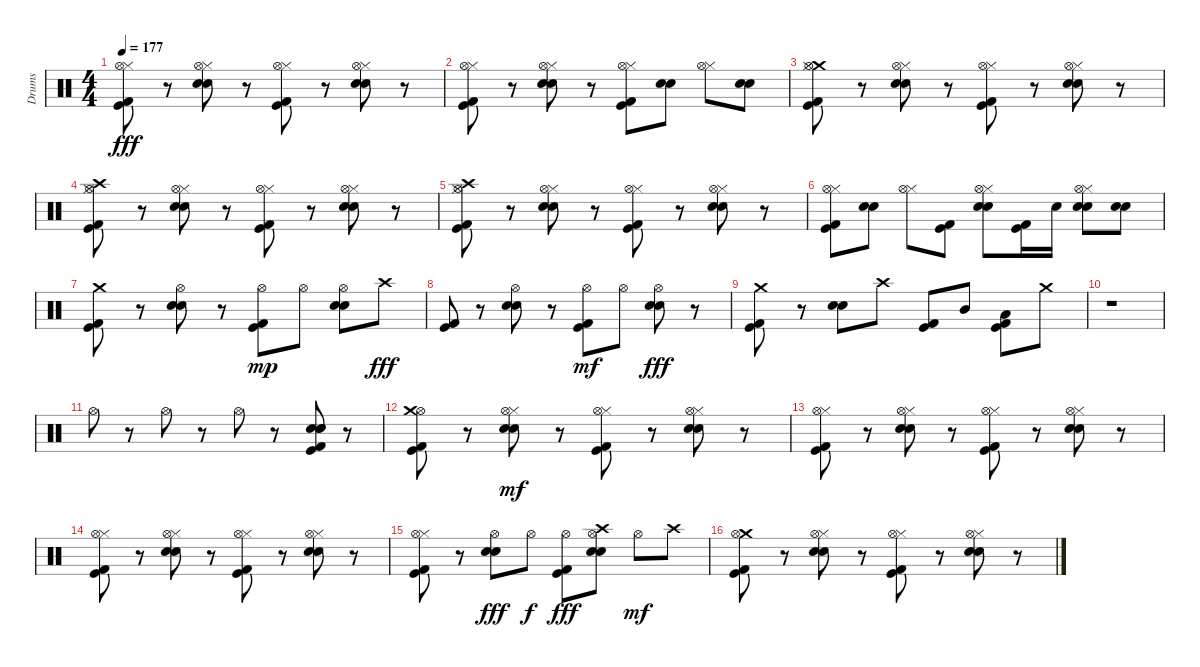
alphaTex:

\track ("Drums" "Drums") {instrument percussion}
\staff {score}
\articulation defaults
\ts (4 4)
\tempo 177
\clef neutral
\ks c
("Kick (hit) 2" "Kick (hit)" "Hi-Hat (closed)" "Hi-Hat (open)").8{dy fff} r.8 ("Electric Snare (hit)" "Snare (hit) 2" "Hi-Hat (closed)" "Hi-Hat (open)").8 r.8 ("Kick (hit) 2" "Kick (hit)" "Hi-Hat (closed)" "Hi-Hat (open)").8 r.8 ("Electric Snare (hit)" "Snare (hit) 2" "Hi-Hat (closed)" "Hi-Hat (open)").8 r.8 |
("Kick (hit) 2" "Kick (hit)" "Hi-Hat (closed)" "Hi-Hat (open)").8 r.8 ("Electric Snare (hit)" "Snare (hit) 2" "Hi-Hat (closed)" "Hi-Hat (open)").8 r.8 ("Kick (hit) 2" "Kick (hit)" "Hi-Hat (closed)" "Hi-Hat (open)").8 ("Electric Snare (hit)" "Snare (hit) 2").8 ("Hi-Hat (closed)" "Hi-Hat (open)").8 ("Electric Snare (hit)" "Snare (hit) 2").8 |
("Crash medium (hit)" "Kick (hit) 2" "Kick (hit)" "Hi-Hat (closed)" "Hi-Hat (open)").8 r.8 ("Electric Snare (hit)" "Snare (hit) 2" "Hi-Hat (closed)" "Hi-Hat (open)").8 r.8 ("Kick (hit) 2" "Kick (hit)" "Hi-Hat (closed)" "Hi-Hat (open)").8 r.8 ("Electric Snare (hit)" "Snare (hit) 2" "Hi-Hat (closed)" "Hi-Hat (open)").8 r.8 |
("Crash high (hit)" "Kick (hit) 2" "Kick (hit)" "Hi-Hat (closed)" "Hi-Hat (open)").8 r.8 ("Electric Snare (hit)" "Snare (hit) 2" "Hi-Hat (closed)" "Hi-Hat (open)").8 r.8 ("Kick (hit) 2" "Kick (hit)" "Hi-Hat (closed)" "Hi-Hat (open)").8 r.8 ("Electric Snare (hit)" "Snare (hit) 2" "Hi-Hat (closed)" "Hi-Hat (open)").8 r.8 |
("Crash high (hit)" "Kick (hit) 2" "Kick (hit)" "Hi-Hat (closed)" "Hi-Hat (open)").8 r.8 ("Electric Snare (hit)" "Snare (hit) 2" "Hi-Hat (closed)" "Hi-Hat (open)").8 r.8 ("Kick (hit) 2" "Kick (hit)" "Hi-Hat (closed)" "Hi-Hat (open)").8 r.8 ("Electric Snare (hit)" "Snare (hit) 2" "Hi-Hat (closed)" "Hi-Hat (open)").8 r.8 |
("Kick (hit) 2" "Kick (hit)" "Hi-Hat (closed)" "Hi-Hat (open)").8 ("Electric Snare (hit)" "Snare (hit) 2").8 ("Hi-Hat (closed)" "Hi-Hat (open)").8 ("Kick (hit) 2" "Kick (hit)").8 ("Electric Snare (hit)" "Snare (hit) 2" "Hi-Hat (closed)" "Hi-Hat (open)").8 ("Kick (hit) 2" "Kick (hit)").16 "Electric Snare (hit)".16 ("Electric Snare (hit)" "Snare (hit) 2" "Hi-Hat (closed)" "Hi-Hat (open)").8 ("Electric Snare (hit)" "Snare (hit) 2").8 |
("Kick (hit) 2" "Kick (hit)" "Crash medium (hit)").8 r.8 ("Hi-Hat (open)" "Electric Snare (hit)" "Snare (hit) 2").8 r.8 ("Kick (hit) 2" "Kick (hit)" "Hi-Hat (open)").8{dy mp} "Hi-Hat (open)".8 ("Electric Snare (hit)" "Snare (hit) 2" "Hi-Hat (open)").8 "Crash high (hit)".8{dy fff} |
("Kick (hit) 2" "Kick (hit)").8 r.8 ("Electric Snare (hit)" "Snare (hit) 2" "Hi-Hat (open)").8 r.8 ("Kick (hit) 2" "Kick (hit)" "Hi-Hat (open)").8{dy mf} "Hi-Hat (open)".8 ("Electric Snare (hit)" "Snare (hit) 2" "Hi-Hat (open)").8{dy fff} r.8 |
("Kick (hit) 2" "Kick (hit)" "Crash medium (hit)").8 r.8 ("Electric Snare (hit)" "Snare (hit) 2").8 "Crash high (hit)".8 ("Kick (hit) 2" "Kick (hit)").8 "Mid Tom (hit)".8 ("Low Tom (hit)" "Kick (hit) 2" "Kick (hit)").8 "Crash medium (hit)".8 |
r.1 |
"Hi-Hat (open)".8 r.8 "Hi-Hat (open)".8 r.8 "Hi-Hat (open)".8 r.8 ("Snare (hit) 2" "Electric Snare (hit)" "Snare (hit) 2" "Kick (hit) 2" "Kick (hit)").8 r.8 |
("Hi-Hat (open)" "Kick (hit) 2" "Kick (hit)" "Crash medium (hit)").8 r.8 ("Electric Snare (hit)" "Snare (hit) 2" "Hi-Hat (closed)" "Hi-Hat (open)").8{dy mf} r.8 ("Kick (hit) 2" "Kick (hit)" "Hi-Hat (closed)" "Hi-Hat (open)").8 r.8 ("Electric Snare (hit)" "Snare (hit) 2" "Hi-Hat (closed)" "Hi-Hat (open)").8 r.8 |
("Hi-Hat (closed)" "Kick (hit) 2" "Kick (hit)" "Hi-Hat (open)").8 r.8 ("Hi-Hat (closed)" "Electric Snare (hit)" "Snare (hit) 2" "Hi-Hat (open)").8 r.8 ("Hi-Hat (closed)" "Kick (hit) 2" "Kick (hit)" "Hi-Hat (open)").8 r.8 ("Hi-Hat (closed)" "Electric Snare (hit)" "Snare (hit) 2" "Hi-Hat (open)").8 r.8 |
("Hi-Hat (closed)" "Kick (hit) 2" "Kick (hit)" "Hi-Hat (open)").8 r.8 ("Hi-Hat (closed)" "Electric Snare (hit)" "Snare (hit) 2" "Hi-Hat (open)").8 r.8 ("Hi-Hat (closed)" "Kick (hit) 2" "Kick (hit)" "Hi-Hat (open)").8 r.8 ("Hi-Hat (closed)" "Electric Snare (hit)" "Snare (hit) 2" "Hi-Hat (open)").8 r.8 |
("Kick (hit) 2" "Kick (hit)" "Hi-Hat (closed)" "Hi-Hat (open)").8 r.8 ("Hi-Hat (open)" "Electric Snare (hit)" "Snare (hit) 2").8{dy fff} "Hi-Hat (open)".8{dy f} ("Hi-Hat (open)" "Kick (hit) 2" "Kick (hit)").8{dy fff} ("Hi-Hat (open)" "Electric Snare (hit)" "Snare (hit) 2" "Crash high (hit)").8 "Hi-Hat (open)".8{dy mf} "Crash high (hit)".8 |
("Kick (hit) 2" "Kick (hit)" "Crash medium (hit)" "Hi-Hat (open)").8 r.8 ("Hi-Hat (closed)" "Electric Snare (hit)" "Snare (hit) 2" "Hi-Hat (open)").8 r.8 ("Hi-Hat (closed)" "Kick (hit) 2" "Kick (hit)" "Hi-Hat (open)").8 r.8 ("Hi-Hat (closed)" "Electric Snare (hit)" "Snare (hit) 2" "Hi-Hat (open)").8 r.8
